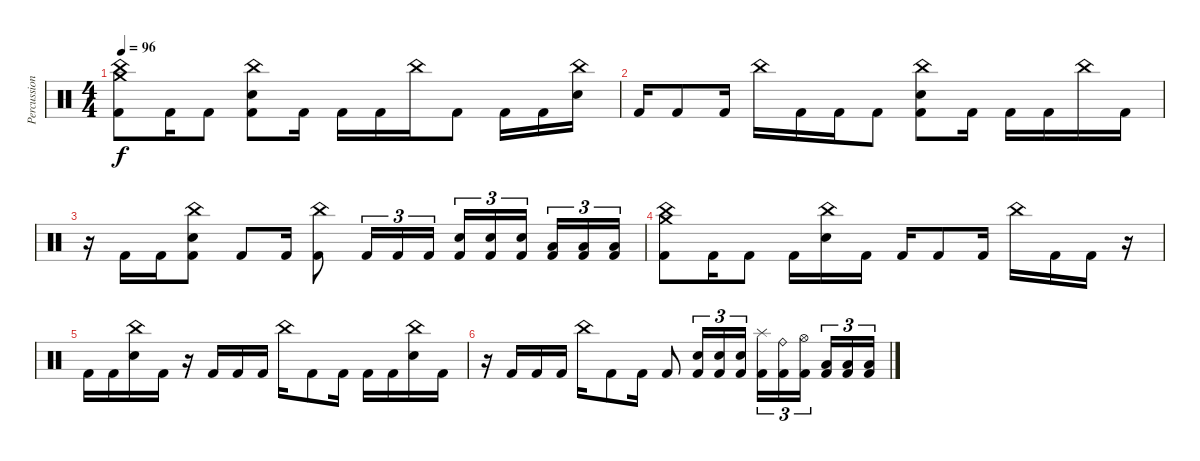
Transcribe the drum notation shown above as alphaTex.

\track ("Percussion" "Percussion") {instrument percussion}
\staff {score}
\articulation defaults
\ts (4 4)
\tempo 96
\clef neutral
\ks c
("Crash medium (hit)" "China (hit)" "Kick (hit) 2").8{dy f} "Kick (hit) 2".16 "Kick (hit) 2".8 ("China (hit)" "Electric Snare (hit)" "Kick (hit) 2").8 "Kick (hit) 2".16 "Kick (hit) 2".16 "Kick (hit) 2".16 "China (hit)".16 "Kick (hit) 2".8 "Kick (hit) 2".16 "Kick (hit) 2".16 ("China (hit)" "Electric Snare (hit)").16 |
"Kick (hit) 2".16 "Kick (hit) 2".8 "Kick (hit) 2".16 "China (hit)".16 "Kick (hit) 2".16 "Kick (hit) 2".16 "Kick (hit) 2".8 ("China (hit)" "Electric Snare (hit)" "Kick (hit) 2").8 "Kick (hit) 2".16 "Kick (hit) 2".16 "Kick (hit) 2".16 "China (hit)".16 "Kick (hit) 2".16 |
r.16 "Kick (hit) 2".16 "Kick (hit) 2".16 ("China (hit)" "Electric Snare (hit)" "Kick (hit) 2").8 "Kick (hit) 2".8 "Kick (hit) 2".16 ("China (hit)" "Kick (hit) 2").8 "Kick (hit) 2".16{tu (3 2)} "Kick (hit) 2".16{tu (3 2)} "Kick (hit) 2".16{tu (3 2)} ("Electric Snare (hit)" "Kick (hit) 2").16{tu (3 2)} ("Electric Snare (hit)" "Kick (hit) 2").16{tu (3 2)} ("Electric Snare (hit)" "Kick (hit) 2").16{tu (3 2) beam splitsecondary} ("Low Tom (hit)" "Kick (hit) 2").16{tu (3 2)} ("Low Tom (hit)" "Kick (hit) 2").16{tu (3 2)} ("Low Tom (hit)" "Kick (hit) 2").16{tu (3 2)} |
("Crash medium (hit)" "China (hit)" "Kick (hit) 2").8 "Kick (hit) 2".16 "Kick (hit) 2".8 "Kick (hit) 2".16 ("China (hit)" "Electric Snare (hit)").16 "Kick (hit) 2".16 "Kick (hit) 2".16 "Kick (hit) 2".8 "Kick (hit) 2".16 "China (hit)".16 "Kick (hit) 2".16 "Kick (hit) 2".16 r.16 |
"Kick (hit) 2".16 "Kick (hit) 2".16 ("China (hit)" "Electric Snare (hit)").16 "Kick (hit) 2".16 r.16 "Kick (hit) 2".16 "Kick (hit) 2".16 "Kick (hit) 2".16 "China (hit)".16 "Kick (hit) 2".8 "Kick (hit) 2".16 "Kick (hit) 2".16 "Kick (hit) 2".16 ("China (hit)" "Electric Snare (hit)").16 "Kick (hit) 2".16 |
r.16 "Kick (hit) 2".16 "Kick (hit) 2".16 "Kick (hit) 2".16 "China (hit)".16 "Kick (hit) 2".8 "Kick (hit) 2".16 "Kick (hit) 2".8 ("Electric Snare (hit)" "Kick (hit) 2").16{tu (3 2)} ("Electric Snare (hit)" "Kick (hit) 2").16{tu (3 2)} ("Electric Snare (hit)" "Kick (hit) 2").16{tu (3 2)} ("Splash (hit)" "Kick (hit) 2").16{tu (3 2)} ("Ride (bell)" "Kick (hit) 2").16{tu (3 2)} ("Hi-Hat (open)" "Kick (hit) 2").16{tu (3 2) beam splitsecondary} ("Low Tom (hit)" "Kick (hit) 2").16{tu (3 2)} ("Low Tom (hit)" "Kick (hit) 2").16{tu (3 2)} ("Low Tom (hit)" "Kick (hit) 2").16{tu (3 2)}
